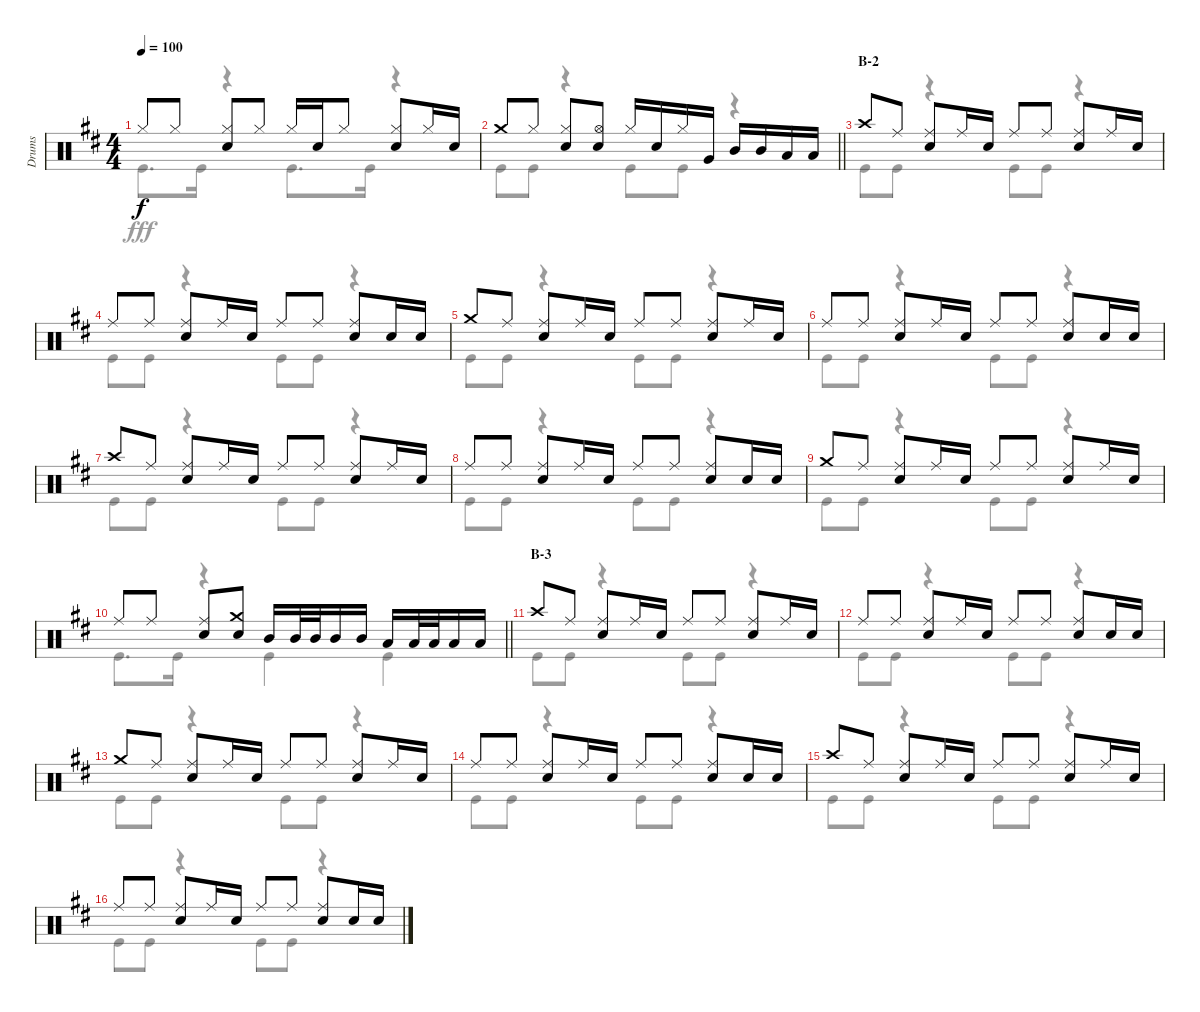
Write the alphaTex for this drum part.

\track ("Drums" "Drums") {instrument percussion}
\staff {score}
\articulation defaults
\voice
\ts (4 4)
\tempo 100
\clef neutral
\ks d "Hi-Hat (closed)".8{dy f} "Hi-Hat (closed)".8
("Hi-Hat (closed)" "Snare (hit) 2").8 "Hi-Hat (closed)".8 "Hi-Hat (closed)".16 "Snare (hit) 2".16 "Hi-Hat (closed)".8 ("Hi-Hat (closed)" "Snare (hit) 2").8 "Hi-Hat (closed)".16 "Snare (hit) 2".16 |
\barLineRight lightlight "Crash medium (hit)".8 "Hi-Hat (closed)".8
("Hi-Hat (closed)" "Snare (hit) 2").8 ("Hi-Hat (open)" "Snare (hit) 2").8 "Hi-Hat (closed)".16 "Snare (hit) 2".16 "Hi-Hat (closed)".16 "Very Low Tom (hit)".16 "Mid Tom (hit)".16 "Mid Tom (hit)".16 "Low Tom (hit)".16 "Low Tom (hit)".16 |
\section ("" "B-2")
"Crash high (hit)".8 "Ride (middle)".8 ("Ride (middle)" "Snare (hit) 2").8 "Ride (middle)".16 "Snare (hit) 2".16 "Ride (middle)".8 "Ride (middle)".8 ("Ride (middle)" "Snare (hit) 2").8 "Ride (middle)".16 "Snare (hit) 2".16 |
"Ride (middle)".8 "Ride (middle)".8 ("Ride (middle)" "Snare (hit) 2").8 "Ride (middle)".16 "Snare (hit) 2".16 "Ride (middle)".8 "Ride (middle)".8 ("Ride (middle)" "Snare (hit) 2").8 "Snare (hit) 2".16 "Snare (hit) 2".16 |
"Crash medium (hit)".8 "Ride (middle)".8 ("Ride (middle)" "Snare (hit) 2").8 "Ride (middle)".16 "Snare (hit) 2".16 "Ride (middle)".8 "Ride (middle)".8 ("Ride (middle)" "Snare (hit) 2").8 "Ride (middle)".16 "Snare (hit) 2".16 |
"Ride (middle)".8 "Ride (middle)".8 ("Ride (middle)" "Snare (hit) 2").8 "Ride (middle)".16 "Snare (hit) 2".16 "Ride (middle)".8 "Ride (middle)".8 ("Ride (middle)" "Snare (hit) 2").8 "Snare (hit) 2".16 "Snare (hit) 2".16 |
"Crash high (hit)".8 "Ride (middle)".8 ("Ride (middle)" "Snare (hit) 2").8 "Ride (middle)".16 "Snare (hit) 2".16 "Ride (middle)".8 "Ride (middle)".8 ("Ride (middle)" "Snare (hit) 2").8 "Ride (middle)".16 "Snare (hit) 2".16 |
"Ride (middle)".8 "Ride (middle)".8 ("Ride (middle)" "Snare (hit) 2").8 "Ride (middle)".16 "Snare (hit) 2".16 "Ride (middle)".8 "Ride (middle)".8 ("Ride (middle)" "Snare (hit) 2").8 "Snare (hit) 2".16 "Snare (hit) 2".16 |
"Crash medium (hit)".8 "Ride (middle)".8 ("Ride (middle)" "Snare (hit) 2").8 "Ride (middle)".16 "Snare (hit) 2".16 "Ride (middle)".8 "Ride (middle)".8 ("Ride (middle)" "Snare (hit) 2").8 "Ride (middle)".16 "Snare (hit) 2".16 |
\barLineRight lightlight "Ride (middle)".8 "Ride (middle)".8
("Ride (middle)" "Snare (hit) 2").8 ("Crash medium (hit)" "Snare (hit) 2").8 "Mid Tom (hit)".16 "Mid Tom (hit)".32 "Mid Tom (hit)".32 "Mid Tom (hit)".16 "Mid Tom (hit)".16 "Low Tom (hit)".16 "Low Tom (hit)".32 "Low Tom (hit)".32 "Low Tom (hit)".16 "Low Tom (hit)".16 |
\section ("" "B-3")
"Crash high (hit)".8 "Ride (middle)".8 ("Ride (middle)" "Snare (hit) 2").8 "Ride (middle)".16 "Snare (hit) 2".16 "Ride (middle)".8 "Ride (middle)".8 ("Ride (middle)" "Snare (hit) 2").8 "Ride (middle)".16 "Snare (hit) 2".16 |
"Ride (middle)".8 "Ride (middle)".8 ("Ride (middle)" "Snare (hit) 2").8 "Ride (middle)".16 "Snare (hit) 2".16 "Ride (middle)".8 "Ride (middle)".8 ("Ride (middle)" "Snare (hit) 2").8 "Snare (hit) 2".16 "Snare (hit) 2".16 |
"Crash medium (hit)".8 "Ride (middle)".8 ("Ride (middle)" "Snare (hit) 2").8 "Ride (middle)".16 "Snare (hit) 2".16 "Ride (middle)".8 "Ride (middle)".8 ("Ride (middle)" "Snare (hit) 2").8 "Ride (middle)".16 "Snare (hit) 2".16 |
"Ride (middle)".8 "Ride (middle)".8 ("Ride (middle)" "Snare (hit) 2").8 "Ride (middle)".16 "Snare (hit) 2".16 "Ride (middle)".8 "Ride (middle)".8 ("Ride (middle)" "Snare (hit) 2").8 "Snare (hit) 2".16 "Snare (hit) 2".16 |
"Crash high (hit)".8 "Ride (middle)".8 ("Ride (middle)" "Snare (hit) 2").8 "Ride (middle)".16 "Snare (hit) 2".16 "Ride (middle)".8 "Ride (middle)".8 ("Ride (middle)" "Snare (hit) 2").8 "Ride (middle)".16 "Snare (hit) 2".16 |
"Ride (middle)".8 "Ride (middle)".8 ("Ride (middle)" "Snare (hit) 2").8 "Ride (middle)".16 "Snare (hit) 2".16 "Ride (middle)".8 "Ride (middle)".8 ("Ride (middle)" "Snare (hit) 2").8 "Snare (hit) 2".16 "Snare (hit) 2".16
\voice
\clef neutral
\ottava regular
\simile none
\ks d "Kick (hit)".8{d dy fff} "Kick (hit)".16
r.4 "Kick (hit)".8{d} "Kick (hit)".16 r.4 |
\barLineRight lightlight "Kick (hit)".8 "Kick (hit)".8
r.4 "Kick (hit)".8 "Kick (hit)".8 r.4 |
"Kick (hit)".8 "Kick (hit)".8 r.4 "Kick (hit)".8 "Kick (hit)".8 r.4 |
"Kick (hit)".8 "Kick (hit)".8 r.4 "Kick (hit)".8 "Kick (hit)".8 r.4 |
"Kick (hit)".8 "Kick (hit)".8 r.4 "Kick (hit)".8 "Kick (hit)".8 r.4 |
"Kick (hit)".8 "Kick (hit)".8 r.4 "Kick (hit)".8 "Kick (hit)".8 r.4 |
"Kick (hit)".8 "Kick (hit)".8 r.4 "Kick (hit)".8 "Kick (hit)".8 r.4 |
"Kick (hit)".8 "Kick (hit)".8 r.4 "Kick (hit)".8 "Kick (hit)".8 r.4 |
"Kick (hit)".8 "Kick (hit)".8 r.4 "Kick (hit)".8 "Kick (hit)".8 r.4 |
\barLineRight lightlight "Kick (hit)".8{d} "Kick (hit)".16
r.4 "Kick (hit)".4 "Kick (hit)".4 |
"Kick (hit)".8 "Kick (hit)".8 r.4 "Kick (hit)".8 "Kick (hit)".8 r.4 |
"Kick (hit)".8 "Kick (hit)".8 r.4 "Kick (hit)".8 "Kick (hit)".8 r.4 |
"Kick (hit)".8 "Kick (hit)".8 r.4 "Kick (hit)".8 "Kick (hit)".8 r.4 |
"Kick (hit)".8 "Kick (hit)".8 r.4 "Kick (hit)".8 "Kick (hit)".8 r.4 |
"Kick (hit)".8 "Kick (hit)".8 r.4 "Kick (hit)".8 "Kick (hit)".8 r.4 |
"Kick (hit)".8 "Kick (hit)".8 r.4 "Kick (hit)".8 "Kick (hit)".8 r.4
